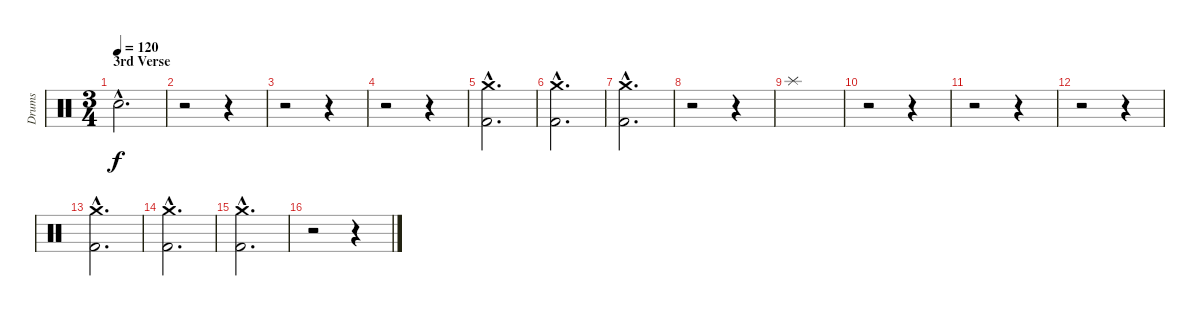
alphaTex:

\track ("Drums" "Drums") {instrument percussion}
\staff {score}
\articulation defaults
\ts (3 4)
\section ("" "3rd Verse")
\tempo 120
\clef neutral
\ks c "Electric Snare (hit)"{hac}.2{d dy f}
|
r.2 r.4 |
r.2 r.4 |
r.2 r.4 |
("Kick (hit) 2"{hac} "Crash medium (hit)"{hac}).2{d} |
("Kick (hit) 2"{hac} "Crash medium (hit)"{hac}).2{d} |
("Kick (hit) 2"{hac} "Crash medium (hit)"{hac}).2{d} |
r.2 r.4 |
"Splash (hit)".1 |
r.2 r.4 |
r.2 r.4 |
r.2 r.4 |
("Kick (hit) 2"{hac} "Crash medium (hit)"{hac}).2{d} |
("Kick (hit) 2"{hac} "Crash medium (hit)"{hac}).2{d} |
("Kick (hit) 2"{hac} "Crash medium (hit)"{hac}).2{d} |
r.2 r.4
